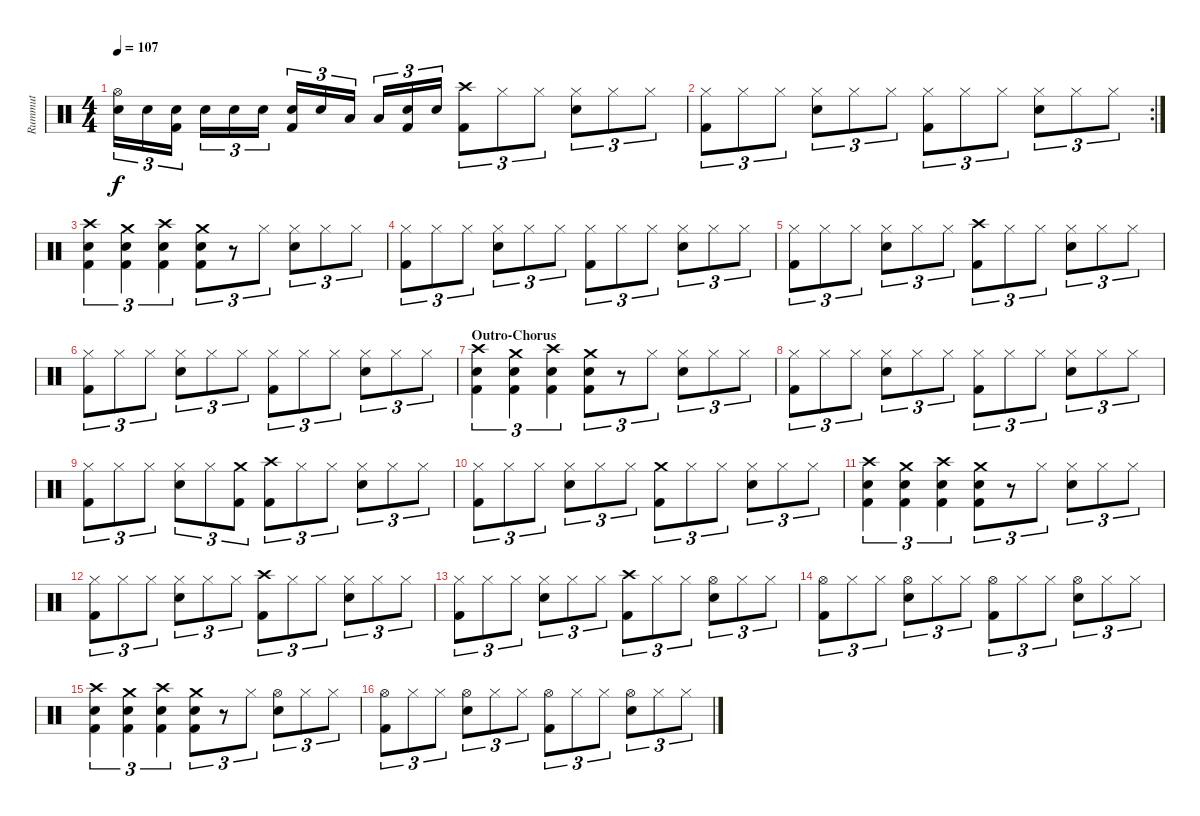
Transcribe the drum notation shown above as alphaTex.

\track ("Rummut" "Rummut") {instrument percussion}
\staff {score}
\articulation defaults
\ts (4 4)
\tempo 107
\clef neutral
\ks c
("Hi-Hat (open)" "Snare (hit) 2").16{tu (3 2) dy f} "Snare (hit)".16{tu (3 2)} ("Snare (hit)" "Kick (hit) 2").16{tu (3 2)} "Snare (hit)".16{tu (3 2)} "Snare (hit) 2".16{tu (3 2)} "Snare (hit)".16{tu (3 2)} ("Snare (hit)" "Kick (hit) 2").16{tu (3 2)} "Snare (hit)".16{tu (3 2)} "Low Tom (hit)".16{tu (3 2)} "Low Tom (hit)".16{tu (3 2)} ("Snare (hit)" "Kick (hit) 2").16{tu (3 2)} "Snare (hit)".16{tu (3 2)} ("Crash high (hit)" "Kick (hit) 2").8{tu (3 2)} "Hi-Hat (closed)".8{tu (3 2)} "Hi-Hat (closed)".8{tu (3 2)} ("Hi-Hat (closed)" "Snare (hit) 2").8{tu (3 2)} "Hi-Hat (closed)".8{tu (3 2)} "Hi-Hat (closed)".8{tu (3 2)} |
\rc 2
("Hi-Hat (closed)" "Kick (hit) 2").8{tu (3 2)} "Hi-Hat (closed)".8{tu (3 2)} "Hi-Hat (closed)".8{tu (3 2)} ("Hi-Hat (closed)" "Snare (hit) 2").8{tu (3 2)} "Hi-Hat (closed)".8{tu (3 2)} "Hi-Hat (closed)".8{tu (3 2)} ("Hi-Hat (closed)" "Kick (hit) 2").8{tu (3 2)} "Hi-Hat (closed)".8{tu (3 2)} "Hi-Hat (closed)".8{tu (3 2)} ("Hi-Hat (closed)" "Snare (hit) 2").8{tu (3 2)} "Hi-Hat (closed)".8{tu (3 2)} "Hi-Hat (closed)".8{tu (3 2)} |
("Crash high (hit)" "Snare (hit) 2" "Kick (hit) 2").4{tu (3 2)} ("Crash medium (hit)" "Snare (hit) 2" "Kick (hit) 2").4{tu (3 2)} ("Crash high (hit)" "Snare (hit) 2" "Kick (hit) 2").4{tu (3 2)} ("Crash medium (hit)" "Snare (hit) 2" "Kick (hit) 2").8{tu (3 2)} r.8{tu (3 2)} "Hi-Hat (closed)".8{tu (3 2)} ("Hi-Hat (closed)" "Snare (hit) 2").8{tu (3 2)} "Hi-Hat (closed)".8{tu (3 2)} "Hi-Hat (closed)".8{tu (3 2)} |
("Hi-Hat (closed)" "Kick (hit) 2").8{tu (3 2)} "Hi-Hat (closed)".8{tu (3 2)} "Hi-Hat (closed)".8{tu (3 2)} ("Hi-Hat (closed)" "Snare (hit) 2").8{tu (3 2)} "Hi-Hat (closed)".8{tu (3 2)} "Hi-Hat (closed)".8{tu (3 2)} ("Hi-Hat (closed)" "Kick (hit) 2").8{tu (3 2)} "Hi-Hat (closed)".8{tu (3 2)} "Hi-Hat (closed)".8{tu (3 2)} ("Hi-Hat (closed)" "Snare (hit) 2").8{tu (3 2)} "Hi-Hat (closed)".8{tu (3 2)} "Hi-Hat (closed)".8{tu (3 2)} |
("Hi-Hat (closed)" "Kick (hit) 2").8{tu (3 2)} "Hi-Hat (closed)".8{tu (3 2)} "Hi-Hat (closed)".8{tu (3 2)} ("Hi-Hat (closed)" "Snare (hit) 2").8{tu (3 2)} "Hi-Hat (closed)".8{tu (3 2)} "Hi-Hat (closed)".8{tu (3 2)} ("Crash high (hit)" "Kick (hit) 2").8{tu (3 2)} "Hi-Hat (closed)".8{tu (3 2)} "Hi-Hat (closed)".8{tu (3 2)} ("Hi-Hat (closed)" "Snare (hit) 2").8{tu (3 2)} "Hi-Hat (closed)".8{tu (3 2)} "Hi-Hat (closed)".8{tu (3 2)} |
("Hi-Hat (closed)" "Kick (hit) 2").8{tu (3 2)} "Hi-Hat (closed)".8{tu (3 2)} "Hi-Hat (closed)".8{tu (3 2)} ("Hi-Hat (closed)" "Snare (hit) 2").8{tu (3 2)} "Hi-Hat (closed)".8{tu (3 2)} "Hi-Hat (closed)".8{tu (3 2)} ("Hi-Hat (closed)" "Kick (hit) 2").8{tu (3 2)} "Hi-Hat (closed)".8{tu (3 2)} "Hi-Hat (closed)".8{tu (3 2)} ("Hi-Hat (closed)" "Snare (hit) 2").8{tu (3 2)} "Hi-Hat (closed)".8{tu (3 2)} "Hi-Hat (closed)".8{tu (3 2)} |
\section ("" "Outro-Chorus")
("Crash high (hit)" "Snare (hit) 2" "Kick (hit) 2").4{tu (3 2)} ("Crash medium (hit)" "Snare (hit) 2" "Kick (hit) 2").4{tu (3 2)} ("Crash high (hit)" "Snare (hit) 2" "Kick (hit) 2").4{tu (3 2)} ("Crash medium (hit)" "Snare (hit) 2" "Kick (hit) 2").8{tu (3 2)} r.8{tu (3 2)} "Hi-Hat (closed)".8{tu (3 2)} ("Hi-Hat (closed)" "Snare (hit) 2").8{tu (3 2)} "Hi-Hat (closed)".8{tu (3 2)} "Hi-Hat (closed)".8{tu (3 2)} |
("Hi-Hat (closed)" "Kick (hit) 2").8{tu (3 2)} "Hi-Hat (closed)".8{tu (3 2)} "Hi-Hat (closed)".8{tu (3 2)} ("Hi-Hat (closed)" "Snare (hit) 2").8{tu (3 2)} "Hi-Hat (closed)".8{tu (3 2)} "Hi-Hat (closed)".8{tu (3 2)} ("Hi-Hat (closed)" "Kick (hit) 2").8{tu (3 2)} "Hi-Hat (closed)".8{tu (3 2)} "Hi-Hat (closed)".8{tu (3 2)} ("Hi-Hat (closed)" "Snare (hit) 2").8{tu (3 2)} "Hi-Hat (closed)".8{tu (3 2)} "Hi-Hat (closed)".8{tu (3 2)} |
("Hi-Hat (closed)" "Kick (hit) 2").8{tu (3 2)} "Hi-Hat (closed)".8{tu (3 2)} "Hi-Hat (closed)".8{tu (3 2)} ("Hi-Hat (closed)" "Snare (hit) 2").8{tu (3 2)} "Hi-Hat (closed)".8{tu (3 2)} ("Crash medium (hit)" "Kick (hit) 2").8{tu (3 2)} ("Crash high (hit)" "Kick (hit) 2").8{tu (3 2)} "Hi-Hat (closed)".8{tu (3 2)} "Hi-Hat (closed)".8{tu (3 2)} ("Hi-Hat (closed)" "Snare (hit) 2").8{tu (3 2)} "Hi-Hat (closed)".8{tu (3 2)} "Hi-Hat (closed)".8{tu (3 2)} |
("Hi-Hat (closed)" "Kick (hit) 2").8{tu (3 2)} "Hi-Hat (closed)".8{tu (3 2)} "Hi-Hat (closed)".8{tu (3 2)} ("Hi-Hat (closed)" "Snare (hit) 2").8{tu (3 2)} "Hi-Hat (closed)".8{tu (3 2)} "Hi-Hat (closed)".8{tu (3 2)} ("Crash medium (hit)" "Kick (hit) 2").8{tu (3 2)} "Hi-Hat (closed)".8{tu (3 2)} "Hi-Hat (closed)".8{tu (3 2)} ("Hi-Hat (closed)" "Snare (hit) 2").8{tu (3 2)} "Hi-Hat (closed)".8{tu (3 2)} "Hi-Hat (closed)".8{tu (3 2)} |
("Crash high (hit)" "Snare (hit) 2" "Kick (hit) 2").4{tu (3 2)} ("Crash medium (hit)" "Snare (hit) 2" "Kick (hit) 2").4{tu (3 2)} ("Crash high (hit)" "Snare (hit) 2" "Kick (hit) 2").4{tu (3 2)} ("Crash medium (hit)" "Snare (hit) 2" "Kick (hit) 2").8{tu (3 2)} r.8{tu (3 2)} "Hi-Hat (closed)".8{tu (3 2)} ("Hi-Hat (closed)" "Snare (hit) 2").8{tu (3 2)} "Hi-Hat (closed)".8{tu (3 2)} "Hi-Hat (closed)".8{tu (3 2)} |
("Hi-Hat (closed)" "Kick (hit) 2").8{tu (3 2)} "Hi-Hat (closed)".8{tu (3 2)} "Hi-Hat (closed)".8{tu (3 2)} ("Hi-Hat (closed)" "Snare (hit) 2").8{tu (3 2)} "Hi-Hat (closed)".8{tu (3 2)} "Hi-Hat (closed)".8{tu (3 2)} ("Crash high (hit)" "Kick (hit) 2").8{tu (3 2)} "Hi-Hat (closed)".8{tu (3 2)} "Hi-Hat (closed)".8{tu (3 2)} ("Hi-Hat (closed)" "Snare (hit) 2").8{tu (3 2)} "Hi-Hat (closed)".8{tu (3 2)} "Hi-Hat (closed)".8{tu (3 2)} |
("Hi-Hat (closed)" "Kick (hit) 2").8{tu (3 2)} "Hi-Hat (closed)".8{tu (3 2)} "Hi-Hat (closed)".8{tu (3 2)} ("Hi-Hat (closed)" "Snare (hit) 2").8{tu (3 2)} "Hi-Hat (closed)".8{tu (3 2)} "Hi-Hat (closed)".8{tu (3 2)} ("Crash high (hit)" "Kick (hit) 2").8{tu (3 2)} "Hi-Hat (closed)".8{tu (3 2)} "Hi-Hat (closed)".8{tu (3 2)} ("Hi-Hat (open)" "Snare (hit) 2").8{tu (3 2)} "Hi-Hat (closed)".8{tu (3 2)} "Hi-Hat (closed)".8{tu (3 2)} |
("Hi-Hat (open)" "Kick (hit) 2").8{tu (3 2)} "Hi-Hat (closed)".8{tu (3 2)} "Hi-Hat (closed)".8{tu (3 2)} ("Hi-Hat (open)" "Snare (hit) 2").8{tu (3 2)} "Hi-Hat (closed)".8{tu (3 2)} "Hi-Hat (closed)".8{tu (3 2)} ("Hi-Hat (open)" "Kick (hit) 2").8{tu (3 2)} "Hi-Hat (closed)".8{tu (3 2)} "Hi-Hat (closed)".8{tu (3 2)} ("Hi-Hat (open)" "Snare (hit) 2").8{tu (3 2)} "Hi-Hat (closed)".8{tu (3 2)} "Hi-Hat (closed)".8{tu (3 2)} |
("Crash high (hit)" "Snare (hit) 2" "Kick (hit) 2").4{tu (3 2) volume 6} ("Crash medium (hit)" "Snare (hit) 2" "Kick (hit) 2").4{tu (3 2)} ("Crash high (hit)" "Snare (hit) 2" "Kick (hit) 2").4{tu (3 2)} ("Crash medium (hit)" "Snare (hit) 2" "Kick (hit) 2").8{tu (3 2)} r.8{tu (3 2)} "Hi-Hat (closed)".8{tu (3 2)} ("Hi-Hat (open)" "Snare (hit) 2").8{tu (3 2)} "Hi-Hat (closed)".8{tu (3 2)} "Hi-Hat (closed)".8{tu (3 2)} |
("Hi-Hat (open)" "Kick (hit) 2").8{tu (3 2)} "Hi-Hat (closed)".8{tu (3 2)} "Hi-Hat (closed)".8{tu (3 2)} ("Hi-Hat (open)" "Snare (hit) 2").8{tu (3 2)} "Hi-Hat (closed)".8{tu (3 2)} "Hi-Hat (closed)".8{tu (3 2)} ("Hi-Hat (open)" "Kick (hit) 2").8{tu (3 2)} "Hi-Hat (closed)".8{tu (3 2)} "Hi-Hat (closed)".8{tu (3 2)} ("Hi-Hat (open)" "Snare (hit) 2").8{tu (3 2)} "Hi-Hat (closed)".8{tu (3 2)} "Hi-Hat (closed)".8{tu (3 2)}
